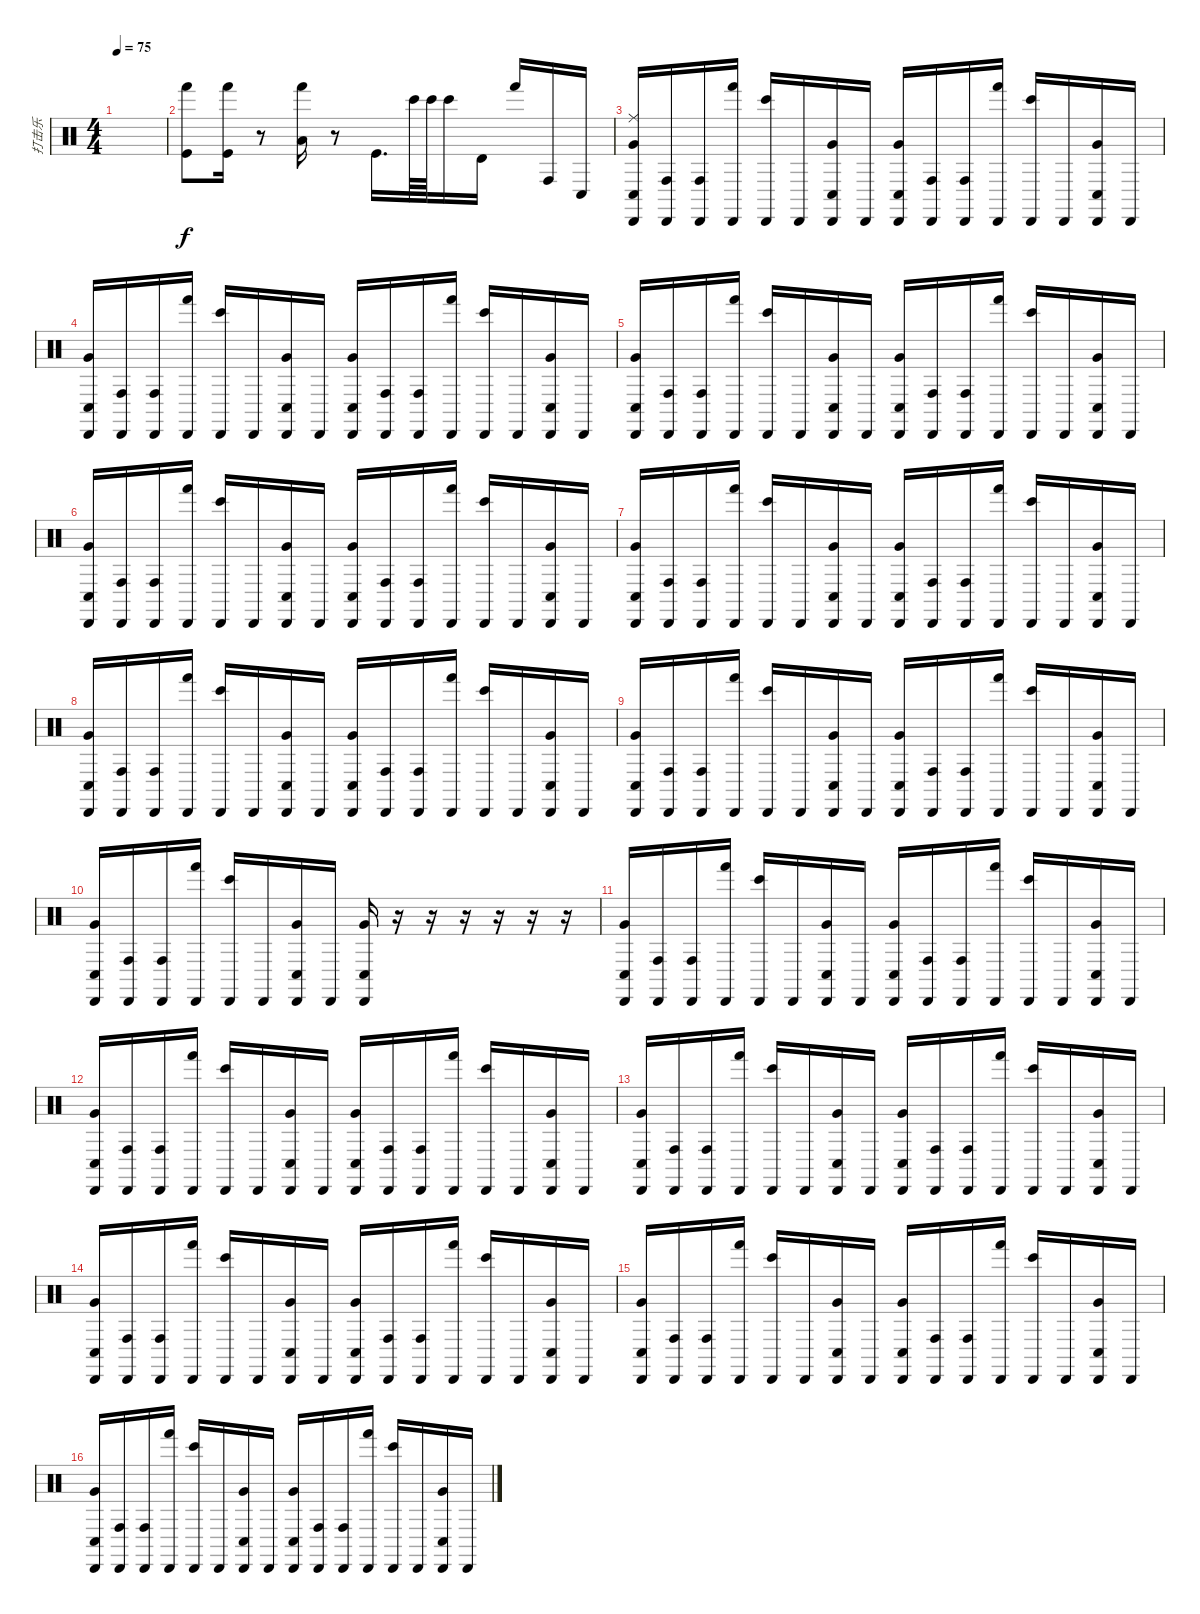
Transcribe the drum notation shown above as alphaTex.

\track ("打击乐" "打击乐") {instrument percussion}
\staff {score}
\articulation defaults
\ts (4 4)
\tempo 75
\clef neutral
\ks c
|
("Kick (hit)" "Hand (hit)").8 ("Kick (hit)" "Hand (hit)").16 r.8 ("Low Floor Tom (hit)" "Hand (hit)").16 r.8 "Kick (hit)".16{d} "Bongo High (hit)".64 "Bongo High (hit)".64 "Bongo High (hit)".16 "Timbale high (hit)".16 "Hand (hit)".16 "Conga high (hit)".16 "Conga low (hit)".16 |
("Conga low (hit)" "Very Low Tom (hit)" "Cabasa (hit)" "Ride (middle)").16 ("Conga high (hit)" "Cabasa (hit)").16 ("Conga high (hit)" "Cabasa (hit)").16 ("Hand (hit)" "Cabasa (hit)").16 ("Bongo High (hit)" "Cabasa (hit)").16 "Cabasa (hit)".16 ("Conga low (hit)" "Very Low Tom (hit)" "Cabasa (hit)").16 "Cabasa (hit)".16 ("Conga low (hit)" "Very Low Tom (hit)" "Cabasa (hit)").16 ("Conga high (hit)" "Cabasa (hit)").16 ("Conga high (hit)" "Cabasa (hit)").16 ("Hand (hit)" "Cabasa (hit)").16 ("Bongo High (hit)" "Cabasa (hit)").16 "Cabasa (hit)".16 ("Conga low (hit)" "Very Low Tom (hit)" "Cabasa (hit)").16 "Cabasa (hit)".16 |
("Conga low (hit)" "Very Low Tom (hit)" "Cabasa (hit)").16 ("Conga high (hit)" "Cabasa (hit)").16 ("Conga high (hit)" "Cabasa (hit)").16 ("Hand (hit)" "Cabasa (hit)").16 ("Bongo High (hit)" "Cabasa (hit)").16 "Cabasa (hit)".16 ("Conga low (hit)" "Very Low Tom (hit)" "Cabasa (hit)").16 "Cabasa (hit)".16 ("Conga low (hit)" "Very Low Tom (hit)" "Cabasa (hit)").16 ("Conga high (hit)" "Cabasa (hit)").16 ("Conga high (hit)" "Cabasa (hit)").16 ("Hand (hit)" "Cabasa (hit)").16 ("Bongo High (hit)" "Cabasa (hit)").16 "Cabasa (hit)".16 ("Conga low (hit)" "Very Low Tom (hit)" "Cabasa (hit)").16 "Cabasa (hit)".16 |
("Conga low (hit)" "Very Low Tom (hit)" "Cabasa (hit)").16 ("Conga high (hit)" "Cabasa (hit)").16 ("Conga high (hit)" "Cabasa (hit)").16 ("Hand (hit)" "Cabasa (hit)").16 ("Bongo High (hit)" "Cabasa (hit)").16 "Cabasa (hit)".16 ("Conga low (hit)" "Very Low Tom (hit)" "Cabasa (hit)").16 "Cabasa (hit)".16 ("Conga low (hit)" "Very Low Tom (hit)" "Cabasa (hit)").16 ("Conga high (hit)" "Cabasa (hit)").16 ("Conga high (hit)" "Cabasa (hit)").16 ("Hand (hit)" "Cabasa (hit)").16 ("Bongo High (hit)" "Cabasa (hit)").16 "Cabasa (hit)".16 ("Conga low (hit)" "Very Low Tom (hit)" "Cabasa (hit)").16 "Cabasa (hit)".16 |
("Conga low (hit)" "Very Low Tom (hit)" "Cabasa (hit)").16 ("Conga high (hit)" "Cabasa (hit)").16 ("Conga high (hit)" "Cabasa (hit)").16 ("Hand (hit)" "Cabasa (hit)").16 ("Bongo High (hit)" "Cabasa (hit)").16 "Cabasa (hit)".16 ("Conga low (hit)" "Very Low Tom (hit)" "Cabasa (hit)").16 "Cabasa (hit)".16 ("Conga low (hit)" "Very Low Tom (hit)" "Cabasa (hit)").16 ("Conga high (hit)" "Cabasa (hit)").16 ("Conga high (hit)" "Cabasa (hit)").16 ("Hand (hit)" "Cabasa (hit)").16 ("Bongo High (hit)" "Cabasa (hit)").16 "Cabasa (hit)".16 ("Conga low (hit)" "Very Low Tom (hit)" "Cabasa (hit)").16 "Cabasa (hit)".16 |
("Conga low (hit)" "Very Low Tom (hit)" "Cabasa (hit)").16 ("Conga high (hit)" "Cabasa (hit)").16 ("Conga high (hit)" "Cabasa (hit)").16 ("Hand (hit)" "Cabasa (hit)").16 ("Bongo High (hit)" "Cabasa (hit)").16 "Cabasa (hit)".16 ("Conga low (hit)" "Very Low Tom (hit)" "Cabasa (hit)").16 "Cabasa (hit)".16 ("Conga low (hit)" "Very Low Tom (hit)" "Cabasa (hit)").16 ("Conga high (hit)" "Cabasa (hit)").16 ("Conga high (hit)" "Cabasa (hit)").16 ("Hand (hit)" "Cabasa (hit)").16 ("Bongo High (hit)" "Cabasa (hit)").16 "Cabasa (hit)".16 ("Conga low (hit)" "Very Low Tom (hit)" "Cabasa (hit)").16 "Cabasa (hit)".16 |
("Conga low (hit)" "Very Low Tom (hit)" "Cabasa (hit)").16 ("Conga high (hit)" "Cabasa (hit)").16 ("Conga high (hit)" "Cabasa (hit)").16 ("Hand (hit)" "Cabasa (hit)").16 ("Bongo High (hit)" "Cabasa (hit)").16 "Cabasa (hit)".16 ("Conga low (hit)" "Very Low Tom (hit)" "Cabasa (hit)").16 "Cabasa (hit)".16 ("Conga low (hit)" "Very Low Tom (hit)" "Cabasa (hit)").16 ("Conga high (hit)" "Cabasa (hit)").16 ("Conga high (hit)" "Cabasa (hit)").16 ("Hand (hit)" "Cabasa (hit)").16 ("Bongo High (hit)" "Cabasa (hit)").16 "Cabasa (hit)".16 ("Conga low (hit)" "Very Low Tom (hit)" "Cabasa (hit)").16 "Cabasa (hit)".16 |
("Conga low (hit)" "Very Low Tom (hit)" "Cabasa (hit)").16 ("Conga high (hit)" "Cabasa (hit)").16 ("Conga high (hit)" "Cabasa (hit)").16 ("Hand (hit)" "Cabasa (hit)").16 ("Bongo High (hit)" "Cabasa (hit)").16 "Cabasa (hit)".16 ("Conga low (hit)" "Very Low Tom (hit)" "Cabasa (hit)").16 "Cabasa (hit)".16 ("Conga low (hit)" "Very Low Tom (hit)" "Cabasa (hit)").16 ("Conga high (hit)" "Cabasa (hit)").16 ("Conga high (hit)" "Cabasa (hit)").16 ("Hand (hit)" "Cabasa (hit)").16 ("Bongo High (hit)" "Cabasa (hit)").16 "Cabasa (hit)".16 ("Conga low (hit)" "Very Low Tom (hit)" "Cabasa (hit)").16 "Cabasa (hit)".16 |
("Conga low (hit)" "Very Low Tom (hit)" "Cabasa (hit)").16 ("Conga high (hit)" "Cabasa (hit)").16 ("Conga high (hit)" "Cabasa (hit)").16 ("Hand (hit)" "Cabasa (hit)").16 ("Bongo High (hit)" "Cabasa (hit)").16 "Cabasa (hit)".16 ("Conga low (hit)" "Very Low Tom (hit)" "Cabasa (hit)").16 "Cabasa (hit)".16 ("Conga low (hit)" "Very Low Tom (hit)" "Cabasa (hit)").16 r.16 r.16 r.16 r.16 r.16 r.16 |
("Conga low (hit)" "Very Low Tom (hit)" "Cabasa (hit)").16 ("Conga high (hit)" "Cabasa (hit)").16 ("Conga high (hit)" "Cabasa (hit)").16 ("Hand (hit)" "Cabasa (hit)").16 ("Bongo High (hit)" "Cabasa (hit)").16 "Cabasa (hit)".16 ("Conga low (hit)" "Very Low Tom (hit)" "Cabasa (hit)").16 "Cabasa (hit)".16 ("Conga low (hit)" "Very Low Tom (hit)" "Cabasa (hit)").16 ("Conga high (hit)" "Cabasa (hit)").16 ("Conga high (hit)" "Cabasa (hit)").16 ("Hand (hit)" "Cabasa (hit)").16 ("Bongo High (hit)" "Cabasa (hit)").16 "Cabasa (hit)".16 ("Conga low (hit)" "Very Low Tom (hit)" "Cabasa (hit)").16 "Cabasa (hit)".16 |
("Conga low (hit)" "Very Low Tom (hit)" "Cabasa (hit)").16 ("Conga high (hit)" "Cabasa (hit)").16 ("Conga high (hit)" "Cabasa (hit)").16 ("Hand (hit)" "Cabasa (hit)").16 ("Bongo High (hit)" "Cabasa (hit)").16 "Cabasa (hit)".16 ("Conga low (hit)" "Very Low Tom (hit)" "Cabasa (hit)").16 "Cabasa (hit)".16 ("Conga low (hit)" "Very Low Tom (hit)" "Cabasa (hit)").16 ("Conga high (hit)" "Cabasa (hit)").16 ("Conga high (hit)" "Cabasa (hit)").16 ("Hand (hit)" "Cabasa (hit)").16 ("Bongo High (hit)" "Cabasa (hit)").16 "Cabasa (hit)".16 ("Conga low (hit)" "Very Low Tom (hit)" "Cabasa (hit)").16 "Cabasa (hit)".16 |
("Conga low (hit)" "Very Low Tom (hit)" "Cabasa (hit)").16 ("Conga high (hit)" "Cabasa (hit)").16 ("Conga high (hit)" "Cabasa (hit)").16 ("Hand (hit)" "Cabasa (hit)").16 ("Bongo High (hit)" "Cabasa (hit)").16 "Cabasa (hit)".16 ("Conga low (hit)" "Very Low Tom (hit)" "Cabasa (hit)").16 "Cabasa (hit)".16 ("Conga low (hit)" "Very Low Tom (hit)" "Cabasa (hit)").16 ("Conga high (hit)" "Cabasa (hit)").16 ("Conga high (hit)" "Cabasa (hit)").16 ("Hand (hit)" "Cabasa (hit)").16 ("Bongo High (hit)" "Cabasa (hit)").16 "Cabasa (hit)".16 ("Conga low (hit)" "Very Low Tom (hit)" "Cabasa (hit)").16 "Cabasa (hit)".16 |
("Conga low (hit)" "Very Low Tom (hit)" "Cabasa (hit)").16 ("Conga high (hit)" "Cabasa (hit)").16 ("Conga high (hit)" "Cabasa (hit)").16 ("Hand (hit)" "Cabasa (hit)").16 ("Bongo High (hit)" "Cabasa (hit)").16 "Cabasa (hit)".16 ("Conga low (hit)" "Very Low Tom (hit)" "Cabasa (hit)").16 "Cabasa (hit)".16 ("Conga low (hit)" "Very Low Tom (hit)" "Cabasa (hit)").16 ("Conga high (hit)" "Cabasa (hit)").16 ("Conga high (hit)" "Cabasa (hit)").16 ("Hand (hit)" "Cabasa (hit)").16 ("Bongo High (hit)" "Cabasa (hit)").16 "Cabasa (hit)".16 ("Conga low (hit)" "Very Low Tom (hit)" "Cabasa (hit)").16 "Cabasa (hit)".16 |
("Conga low (hit)" "Very Low Tom (hit)" "Cabasa (hit)").16 ("Conga high (hit)" "Cabasa (hit)").16 ("Conga high (hit)" "Cabasa (hit)").16 ("Hand (hit)" "Cabasa (hit)").16 ("Bongo High (hit)" "Cabasa (hit)").16 "Cabasa (hit)".16 ("Conga low (hit)" "Very Low Tom (hit)" "Cabasa (hit)").16 "Cabasa (hit)".16 ("Conga low (hit)" "Very Low Tom (hit)" "Cabasa (hit)").16 ("Conga high (hit)" "Cabasa (hit)").16 ("Conga high (hit)" "Cabasa (hit)").16 ("Hand (hit)" "Cabasa (hit)").16 ("Bongo High (hit)" "Cabasa (hit)").16 "Cabasa (hit)".16 ("Conga low (hit)" "Very Low Tom (hit)" "Cabasa (hit)").16 "Cabasa (hit)".16 |
("Conga low (hit)" "Very Low Tom (hit)" "Cabasa (hit)").16 ("Conga high (hit)" "Cabasa (hit)").16 ("Conga high (hit)" "Cabasa (hit)").16 ("Hand (hit)" "Cabasa (hit)").16 ("Bongo High (hit)" "Cabasa (hit)").16 "Cabasa (hit)".16 ("Conga low (hit)" "Very Low Tom (hit)" "Cabasa (hit)").16 "Cabasa (hit)".16 ("Conga low (hit)" "Very Low Tom (hit)" "Cabasa (hit)").16 ("Conga high (hit)" "Cabasa (hit)").16 ("Conga high (hit)" "Cabasa (hit)").16 ("Hand (hit)" "Cabasa (hit)").16 ("Bongo High (hit)" "Cabasa (hit)").16 "Cabasa (hit)".16 ("Conga low (hit)" "Very Low Tom (hit)" "Cabasa (hit)").16 "Cabasa (hit)".16
